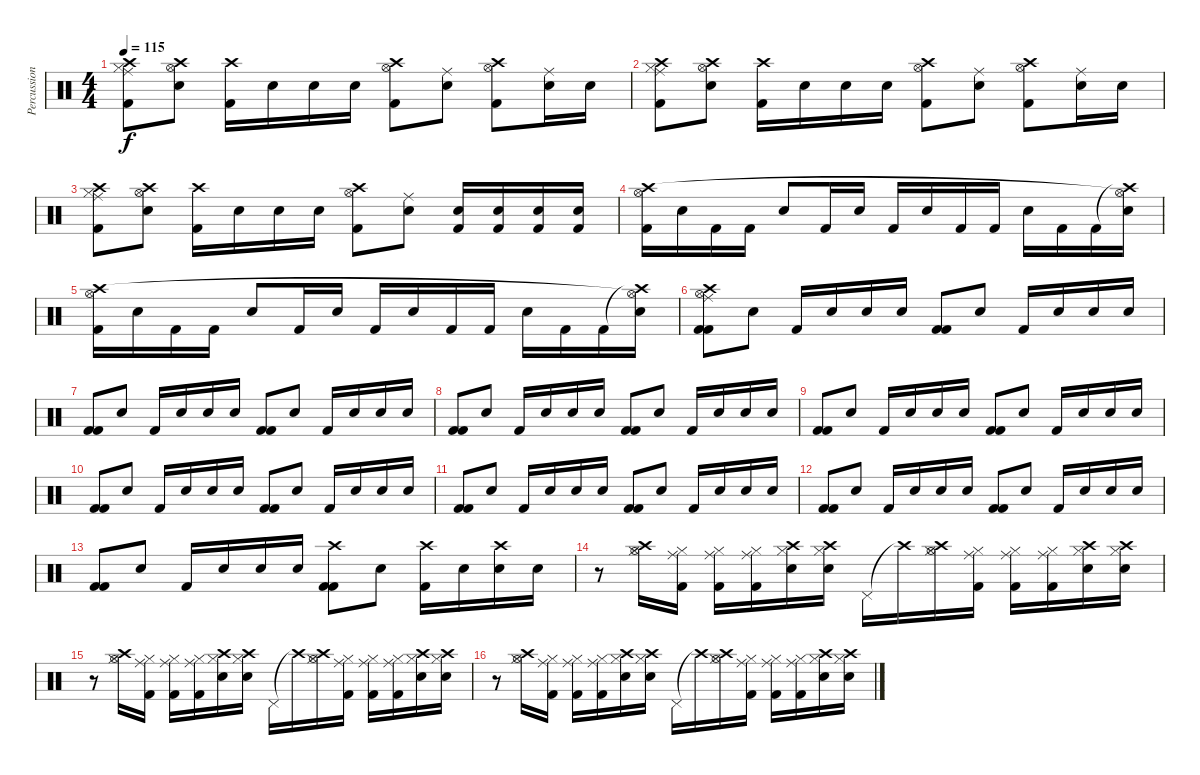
\track ("Percussion" "Percussion") {instrument percussion}
\staff {score}
\articulation defaults
\ts (4 4)
\tempo 115
\clef neutral
\ks c
("Crash high (hit)" "Ride (middle)" "Hi-Hat (closed)" "Kick (hit) 2").8{dy f} ("Crash high (hit)" "Snare (hit) 2" "Hi-Hat (open)").8 ("Crash high (hit)" "Kick (hit) 2").16 "Snare (hit) 2".16 "Snare (hit) 2".16 "Snare (hit) 2".16 ("Crash high (hit)" "Hi-Hat (open)" "Kick (hit) 2").8 ("Ride (middle)" "Snare (hit) 2").8 ("Crash high (hit)" "Hi-Hat (open)" "Kick (hit) 2").8 ("Ride (middle)" "Snare (hit) 2").16 "Snare (hit) 2".16 |
("Crash high (hit)" "Ride (middle)" "Hi-Hat (closed)" "Kick (hit) 2").8 ("Crash high (hit)" "Snare (hit) 2" "Hi-Hat (open)").8 ("Crash high (hit)" "Kick (hit) 2").16 "Snare (hit) 2".16 "Snare (hit) 2".16 "Snare (hit) 2".16 ("Crash high (hit)" "Hi-Hat (open)" "Kick (hit) 2").8 ("Ride (middle)" "Snare (hit) 2").8 ("Crash high (hit)" "Hi-Hat (open)" "Kick (hit) 2").8 ("Ride (middle)" "Snare (hit) 2").16 "Snare (hit) 2".16 |
("Crash high (hit)" "Ride (middle)" "Hi-Hat (closed)" "Kick (hit) 2").8 ("Crash high (hit)" "Snare (hit) 2" "Hi-Hat (open)").8 ("Crash high (hit)" "Kick (hit) 2").16 "Snare (hit) 2".16 "Snare (hit) 2".16 "Snare (hit) 2".16 ("Crash high (hit)" "Hi-Hat (open)" "Kick (hit) 2").8 ("Ride (middle)" "Snare (hit) 2").8 ("Kick (hit) 2" "Snare (hit) 2").16 ("Kick (hit) 2" "Snare (hit) 2").16 ("Kick (hit) 2" "Snare (hit) 2").16 ("Kick (hit) 2" "Snare (hit) 2").16 |
("Hi-Hat (open)" "Crash high (hit)" "Kick (hit) 2").16 "Snare (hit) 2".16 "Kick (hit) 2".16 "Kick (hit) 2".16 "Snare (hit) 2".8 "Kick (hit) 2".16 "Snare (hit) 2".16 "Kick (hit) 2".16 "Snare (hit) 2".16 "Kick (hit) 2".16 "Kick (hit) 2".16 "Snare (hit) 2".16 "Kick (hit) 2".16 "Kick (hit) 2".16 ("Crash high (hit)"{t} "Hi-Hat (open)"{t} "Snare (hit) 2").16 |
("Hi-Hat (open)" "Crash high (hit)" "Kick (hit) 2").16 "Snare (hit) 2".16 "Kick (hit) 2".16 "Kick (hit) 2".16 "Snare (hit) 2".8 "Kick (hit) 2".16 "Snare (hit) 2".16 "Kick (hit) 2".16 "Snare (hit) 2".16 "Kick (hit) 2".16 "Kick (hit) 2".16 "Snare (hit) 2".16 "Kick (hit) 2".16 "Kick (hit) 2".16 ("Crash high (hit)"{t} "Hi-Hat (open)"{t} "Snare (hit) 2").16 |
("Ride (middle)" "Crash high (hit)" "Hi-Hat (open)" "Kick (hit) 2" "Kick (hit) 2").8 "Snare (hit) 2".8 "Kick (hit) 2".16 "Snare (hit) 2".16 "Snare (hit) 2".16 "Snare (hit) 2".16 ("Kick (hit) 2" "Kick (hit) 2").8 "Snare (hit) 2".8 "Kick (hit) 2".16 "Snare (hit) 2".16 "Snare (hit) 2".16 "Snare (hit) 2".16 |
("Kick (hit) 2" "Kick (hit) 2").8 "Snare (hit) 2".8 "Kick (hit) 2".16 "Snare (hit) 2".16 "Snare (hit) 2".16 "Snare (hit) 2".16 ("Kick (hit) 2" "Kick (hit) 2").8 "Snare (hit) 2".8 "Kick (hit) 2".16 "Snare (hit) 2".16 "Snare (hit) 2".16 "Snare (hit) 2".16 |
("Kick (hit) 2" "Kick (hit) 2").8 "Snare (hit) 2".8 "Kick (hit) 2".16 "Snare (hit) 2".16 "Snare (hit) 2".16 "Snare (hit) 2".16 ("Kick (hit) 2" "Kick (hit) 2").8 "Snare (hit) 2".8 "Kick (hit) 2".16 "Snare (hit) 2".16 "Snare (hit) 2".16 "Snare (hit) 2".16 |
("Kick (hit) 2" "Kick (hit) 2").8 "Snare (hit) 2".8 "Kick (hit) 2".16 "Snare (hit) 2".16 "Snare (hit) 2".16 "Snare (hit) 2".16 ("Kick (hit) 2" "Kick (hit) 2").8 "Snare (hit) 2".8 "Kick (hit) 2".16 "Snare (hit) 2".16 "Snare (hit) 2".16 "Snare (hit) 2".16 |
("Kick (hit) 2" "Kick (hit) 2").8 "Snare (hit) 2".8 "Kick (hit) 2".16 "Snare (hit) 2".16 "Snare (hit) 2".16 "Snare (hit) 2".16 ("Kick (hit) 2" "Kick (hit) 2").8 "Snare (hit) 2".8 "Kick (hit) 2".16 "Snare (hit) 2".16 "Snare (hit) 2".16 "Snare (hit) 2".16 |
("Kick (hit) 2" "Kick (hit) 2").8 "Snare (hit) 2".8 "Kick (hit) 2".16 "Snare (hit) 2".16 "Snare (hit) 2".16 "Snare (hit) 2".16 ("Kick (hit) 2" "Kick (hit) 2").8 "Snare (hit) 2".8 "Kick (hit) 2".16 "Snare (hit) 2".16 "Snare (hit) 2".16 "Snare (hit) 2".16 |
("Kick (hit) 2" "Kick (hit) 2").8 "Snare (hit) 2".8 "Kick (hit) 2".16 "Snare (hit) 2".16 "Snare (hit) 2".16 "Snare (hit) 2".16 ("Kick (hit) 2" "Kick (hit) 2").8 "Snare (hit) 2".8 "Kick (hit) 2".16 "Snare (hit) 2".16 "Snare (hit) 2".16 "Snare (hit) 2".16 |
("Kick (hit) 2" "Kick (hit) 2").8 "Snare (hit) 2".8 "Kick (hit) 2".16 "Snare (hit) 2".16 "Snare (hit) 2".16 "Snare (hit) 2".16 ("Crash high (hit)" "Kick (hit) 2" "Kick (hit) 2").8 "Snare (hit) 2".8 ("Crash high (hit)" "Kick (hit) 2").16 "Snare (hit) 2".16 ("Crash high (hit)" "Snare (hit) 2").16 "Snare (hit) 2".16 |
r.8 ("Hi-Hat (closed)" "Hi-Hat (open)" "Crash high (hit)").16 ("Ride (middle)" "Hi-Hat (closed)" "Kick (hit) 2").16 ("Ride (middle)" "Hi-Hat (closed)" "Kick (hit) 2").16 ("Ride (middle)" "Hi-Hat (closed)" "Kick (hit) 2").16 ("Crash high (hit)" "Hi-Hat (closed)" "Snare (hit) 2").16 ("Crash high (hit)" "Hi-Hat (closed)" "Snare (hit) 2").16 "Pedal Hi-Hat (hit)".16 "Crash high (hit)"{t}.16 ("Hi-Hat (closed)" "Hi-Hat (open)" "Crash high (hit)").16 ("Ride (middle)" "Hi-Hat (closed)" "Kick (hit) 2").16 ("Ride (middle)" "Hi-Hat (closed)" "Kick (hit) 2").16 ("Ride (middle)" "Hi-Hat (closed)" "Kick (hit) 2").16 ("Hi-Hat (closed)" "Crash high (hit)" "Snare (hit) 2").16 ("Hi-Hat (closed)" "Crash high (hit)" "Snare (hit) 2").16 |
r.8 ("Hi-Hat (closed)" "Hi-Hat (open)" "Crash high (hit)").16 ("Ride (middle)" "Hi-Hat (closed)" "Kick (hit) 2").16 ("Ride (middle)" "Hi-Hat (closed)" "Kick (hit) 2").16 ("Ride (middle)" "Hi-Hat (closed)" "Kick (hit) 2").16 ("Crash high (hit)" "Hi-Hat (closed)" "Snare (hit) 2").16 ("Crash high (hit)" "Hi-Hat (closed)" "Snare (hit) 2").16 "Pedal Hi-Hat (hit)".16 "Crash high (hit)"{t}.16 ("Hi-Hat (closed)" "Hi-Hat (open)" "Crash high (hit)").16 ("Ride (middle)" "Hi-Hat (closed)" "Kick (hit) 2").16 ("Ride (middle)" "Hi-Hat (closed)" "Kick (hit) 2").16 ("Ride (middle)" "Hi-Hat (closed)" "Kick (hit) 2").16 ("Hi-Hat (closed)" "Crash high (hit)" "Snare (hit) 2").16 ("Hi-Hat (closed)" "Crash high (hit)" "Snare (hit) 2").16 |
r.8 ("Hi-Hat (closed)" "Hi-Hat (open)" "Crash high (hit)").16 ("Ride (middle)" "Hi-Hat (closed)" "Kick (hit) 2").16 ("Ride (middle)" "Hi-Hat (closed)" "Kick (hit) 2").16 ("Ride (middle)" "Hi-Hat (closed)" "Kick (hit) 2").16 ("Crash high (hit)" "Hi-Hat (closed)" "Snare (hit) 2").16 ("Crash high (hit)" "Hi-Hat (closed)" "Snare (hit) 2").16 "Pedal Hi-Hat (hit)".16 "Crash high (hit)"{t}.16 ("Hi-Hat (closed)" "Hi-Hat (open)" "Crash high (hit)").16 ("Ride (middle)" "Hi-Hat (closed)" "Kick (hit) 2").16 ("Ride (middle)" "Hi-Hat (closed)" "Kick (hit) 2").16 ("Ride (middle)" "Hi-Hat (closed)" "Kick (hit) 2").16 ("Hi-Hat (closed)" "Crash high (hit)" "Snare (hit) 2").16 ("Hi-Hat (closed)" "Crash high (hit)" "Snare (hit) 2").16
